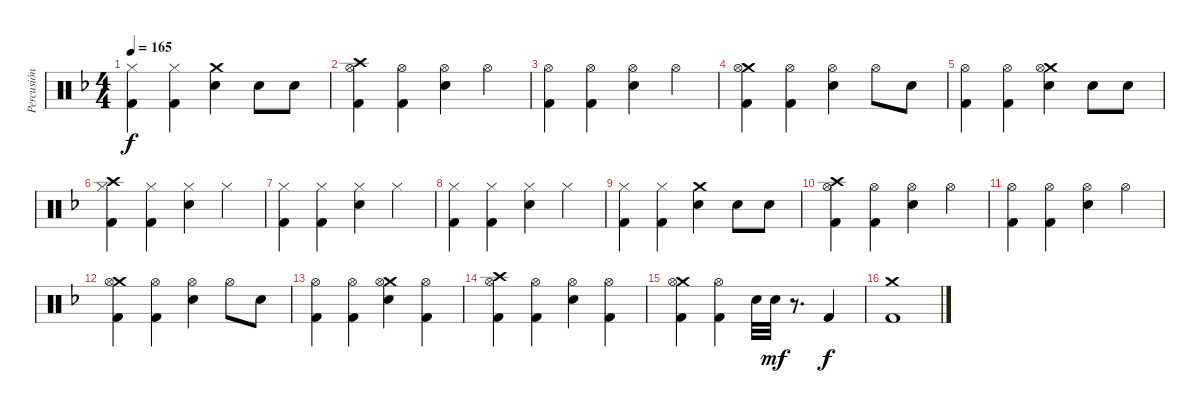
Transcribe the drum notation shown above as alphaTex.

\track ("Percusión" "Percusión") {instrument percussion}
\staff {score}
\articulation defaults
\ts (4 4)
\tempo 165
\clef neutral
\ks f
("Hi-Hat (closed)" "Kick (hit) 2").4{dy f} ("Hi-Hat (closed)" "Kick (hit) 2").4 ("Crash medium (hit)" "Electric Snare (hit)").4 "Electric Snare (hit)".8 "Electric Snare (hit)".8 |
("Crash high (hit)" "Hi-Hat (open)" "Kick (hit) 2").4 ("Hi-Hat (open)" "Kick (hit) 2").4 ("Hi-Hat (open)" "Electric Snare (hit)").4 "Hi-Hat (open)".4 |
("Hi-Hat (open)" "Kick (hit) 2").4 ("Hi-Hat (open)" "Kick (hit) 2").4 ("Hi-Hat (open)" "Electric Snare (hit)").4 "Hi-Hat (open)".4 |
("Crash medium (hit)" "Hi-Hat (open)" "Kick (hit) 2").4 ("Hi-Hat (open)" "Kick (hit) 2").4 ("Hi-Hat (open)" "Electric Snare (hit)").4 "Hi-Hat (open)".8 "Electric Snare (hit)".8 |
("Hi-Hat (open)" "Kick (hit) 2").4 ("Hi-Hat (open)" "Kick (hit) 2").4 ("Crash medium (hit)" "Hi-Hat (open)" "Electric Snare (hit)").4 "Electric Snare (hit)".8 "Electric Snare (hit)".8 |
("Crash high (hit)" "Hi-Hat (closed)" "Kick (hit) 2").4 ("Hi-Hat (closed)" "Kick (hit) 2").4 ("Hi-Hat (closed)" "Electric Snare (hit)").4 "Hi-Hat (closed)".4 |
("Hi-Hat (closed)" "Kick (hit) 2").4 ("Hi-Hat (closed)" "Kick (hit) 2").4 ("Hi-Hat (closed)" "Electric Snare (hit)").4 "Hi-Hat (closed)".4 |
("Hi-Hat (closed)" "Kick (hit) 2").4 ("Hi-Hat (closed)" "Kick (hit) 2").4 ("Hi-Hat (closed)" "Electric Snare (hit)").4 "Hi-Hat (closed)".4 |
("Hi-Hat (closed)" "Kick (hit) 2").4 ("Hi-Hat (closed)" "Kick (hit) 2").4 ("Crash medium (hit)" "Electric Snare (hit)").4 "Electric Snare (hit)".8 "Electric Snare (hit)".8 |
("Crash high (hit)" "Hi-Hat (open)" "Kick (hit) 2").4 ("Hi-Hat (open)" "Kick (hit) 2").4 ("Hi-Hat (open)" "Electric Snare (hit)").4 "Hi-Hat (open)".4 |
("Hi-Hat (open)" "Kick (hit) 2").4 ("Hi-Hat (open)" "Kick (hit) 2").4 ("Hi-Hat (open)" "Electric Snare (hit)").4 "Hi-Hat (open)".4 |
("Crash medium (hit)" "Hi-Hat (open)" "Kick (hit) 2").4 ("Hi-Hat (open)" "Kick (hit) 2").4 ("Hi-Hat (open)" "Electric Snare (hit)").4 "Hi-Hat (open)".8 "Electric Snare (hit)".8 |
("Hi-Hat (open)" "Kick (hit) 2").4 ("Hi-Hat (open)" "Kick (hit) 2").4 ("Crash medium (hit)" "Hi-Hat (open)" "Electric Snare (hit)").4 ("Hi-Hat (open)" "Kick (hit) 2").4 |
("Crash high (hit)" "Hi-Hat (open)" "Kick (hit) 2").4 ("Hi-Hat (open)" "Kick (hit) 2").4 ("Hi-Hat (open)" "Electric Snare (hit)").4 ("Hi-Hat (open)" "Kick (hit) 2").4 |
("Crash medium (hit)" "Hi-Hat (open)" "Kick (hit) 2").4 ("Hi-Hat (open)" "Kick (hit) 2").4 "Electric Snare (hit)".32 "Electric Snare (hit)".32{dy mf} r.8{d} "Kick (hit) 2".4{dy f} |
("Crash medium (hit)" "Kick (hit) 2").1
